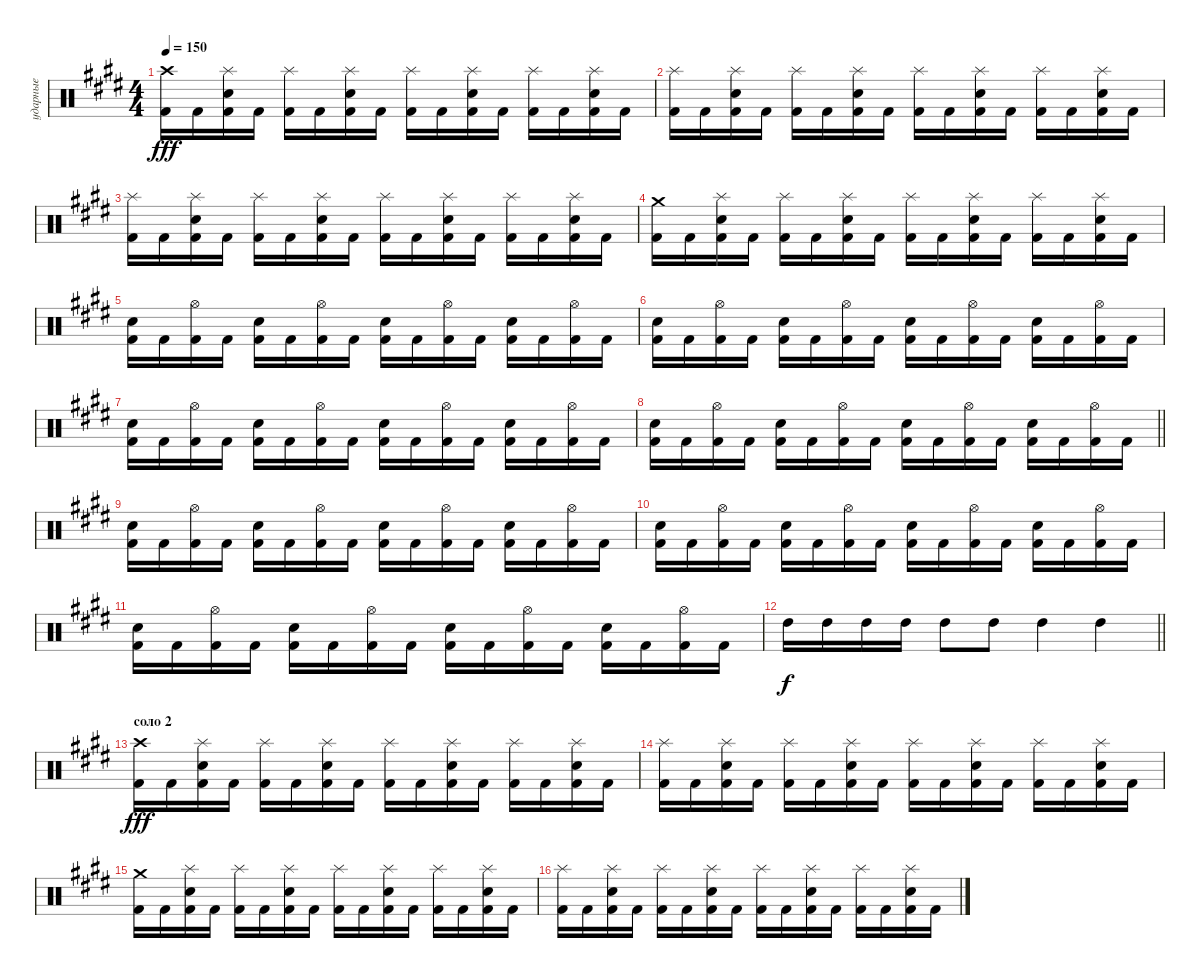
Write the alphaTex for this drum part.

\track ("ударные" "ударные") {instrument percussion}
\staff {score}
\articulation defaults
\ts (4 4)
\tempo 150
\clef neutral
\ks c#minor
("Crash high (hit)" "Kick (hit) 2").16{dy fff} "Kick (hit) 2".16 ("Splash (hit)" "Electric Snare (hit)" "Kick (hit) 2").16 "Kick (hit) 2".16 ("Splash (hit)" "Kick (hit) 2").16 "Kick (hit) 2".16 ("Splash (hit)" "Electric Snare (hit)" "Kick (hit) 2").16 "Kick (hit) 2".16 ("Splash (hit)" "Kick (hit) 2").16 "Kick (hit) 2".16 ("Splash (hit)" "Electric Snare (hit)" "Kick (hit) 2").16 "Kick (hit) 2".16 ("Splash (hit)" "Kick (hit) 2").16 "Kick (hit) 2".16 ("Splash (hit)" "Electric Snare (hit)" "Kick (hit) 2").16 "Kick (hit) 2".16 |
("Splash (hit)" "Kick (hit) 2").16 "Kick (hit) 2".16 ("Splash (hit)" "Electric Snare (hit)" "Kick (hit) 2").16 "Kick (hit) 2".16 ("Splash (hit)" "Kick (hit) 2").16 "Kick (hit) 2".16 ("Splash (hit)" "Electric Snare (hit)" "Kick (hit) 2").16 "Kick (hit) 2".16 ("Splash (hit)" "Kick (hit) 2").16 "Kick (hit) 2".16 ("Splash (hit)" "Electric Snare (hit)" "Kick (hit) 2").16 "Kick (hit) 2".16 ("Splash (hit)" "Kick (hit) 2").16 "Kick (hit) 2".16 ("Splash (hit)" "Electric Snare (hit)" "Kick (hit) 2").16 "Kick (hit) 2".16 |
("Splash (hit)" "Kick (hit) 2").16 "Kick (hit) 2".16 ("Splash (hit)" "Electric Snare (hit)" "Kick (hit) 2").16 "Kick (hit) 2".16 ("Splash (hit)" "Kick (hit) 2").16 "Kick (hit) 2".16 ("Splash (hit)" "Electric Snare (hit)" "Kick (hit) 2").16 "Kick (hit) 2".16 ("Splash (hit)" "Kick (hit) 2").16 "Kick (hit) 2".16 ("Splash (hit)" "Electric Snare (hit)" "Kick (hit) 2").16 "Kick (hit) 2".16 ("Splash (hit)" "Kick (hit) 2").16 "Kick (hit) 2".16 ("Splash (hit)" "Electric Snare (hit)" "Kick (hit) 2").16 "Kick (hit) 2".16 |
("Crash medium (hit)" "Kick (hit) 2").16 "Kick (hit) 2".16 ("Splash (hit)" "Electric Snare (hit)" "Kick (hit) 2").16 "Kick (hit) 2".16 ("Splash (hit)" "Kick (hit) 2").16 "Kick (hit) 2".16 ("Splash (hit)" "Electric Snare (hit)" "Kick (hit) 2").16 "Kick (hit) 2".16 ("Splash (hit)" "Kick (hit) 2").16 "Kick (hit) 2".16 ("Splash (hit)" "Electric Snare (hit)" "Kick (hit) 2").16 "Kick (hit) 2".16 ("Splash (hit)" "Kick (hit) 2").16 "Kick (hit) 2".16 ("Splash (hit)" "Electric Snare (hit)" "Kick (hit) 2").16 "Kick (hit) 2".16 |
("Electric Snare (hit)" "Kick (hit) 2").16 "Kick (hit) 2".16 ("Hi-Hat (open)" "Kick (hit) 2").16 "Kick (hit) 2".16 ("Electric Snare (hit)" "Kick (hit) 2").16 "Kick (hit) 2".16 ("Hi-Hat (open)" "Kick (hit) 2").16 "Kick (hit) 2".16 ("Electric Snare (hit)" "Kick (hit) 2").16 "Kick (hit) 2".16 ("Hi-Hat (open)" "Kick (hit) 2").16 "Kick (hit) 2".16 ("Electric Snare (hit)" "Kick (hit) 2").16 "Kick (hit) 2".16 ("Hi-Hat (open)" "Kick (hit) 2").16 "Kick (hit) 2".16 |
("Electric Snare (hit)" "Kick (hit) 2").16 "Kick (hit) 2".16 ("Hi-Hat (open)" "Kick (hit) 2").16 "Kick (hit) 2".16 ("Electric Snare (hit)" "Kick (hit) 2").16 "Kick (hit) 2".16 ("Hi-Hat (open)" "Kick (hit) 2").16 "Kick (hit) 2".16 ("Electric Snare (hit)" "Kick (hit) 2").16 "Kick (hit) 2".16 ("Hi-Hat (open)" "Kick (hit) 2").16 "Kick (hit) 2".16 ("Electric Snare (hit)" "Kick (hit) 2").16 "Kick (hit) 2".16 ("Hi-Hat (open)" "Kick (hit) 2").16 "Kick (hit) 2".16 |
("Electric Snare (hit)" "Kick (hit) 2").16 "Kick (hit) 2".16 ("Hi-Hat (open)" "Kick (hit) 2").16 "Kick (hit) 2".16 ("Electric Snare (hit)" "Kick (hit) 2").16 "Kick (hit) 2".16 ("Hi-Hat (open)" "Kick (hit) 2").16 "Kick (hit) 2".16 ("Electric Snare (hit)" "Kick (hit) 2").16 "Kick (hit) 2".16 ("Hi-Hat (open)" "Kick (hit) 2").16 "Kick (hit) 2".16 ("Electric Snare (hit)" "Kick (hit) 2").16 "Kick (hit) 2".16 ("Hi-Hat (open)" "Kick (hit) 2").16 "Kick (hit) 2".16 |
\barLineRight lightlight
("Electric Snare (hit)" "Kick (hit) 2").16 "Kick (hit) 2".16 ("Hi-Hat (open)" "Kick (hit) 2").16 "Kick (hit) 2".16 ("Electric Snare (hit)" "Kick (hit) 2").16 "Kick (hit) 2".16 ("Hi-Hat (open)" "Kick (hit) 2").16 "Kick (hit) 2".16 ("Electric Snare (hit)" "Kick (hit) 2").16 "Kick (hit) 2".16 ("Hi-Hat (open)" "Kick (hit) 2").16 "Kick (hit) 2".16 ("Electric Snare (hit)" "Kick (hit) 2").16 "Kick (hit) 2".16 ("Hi-Hat (open)" "Kick (hit) 2").16 "Kick (hit) 2".16 |
("Electric Snare (hit)" "Kick (hit) 2").16 "Kick (hit) 2".16 ("Hi-Hat (open)" "Kick (hit) 2").16 "Kick (hit) 2".16 ("Electric Snare (hit)" "Kick (hit) 2").16 "Kick (hit) 2".16 ("Hi-Hat (open)" "Kick (hit) 2").16 "Kick (hit) 2".16 ("Electric Snare (hit)" "Kick (hit) 2").16 "Kick (hit) 2".16 ("Hi-Hat (open)" "Kick (hit) 2").16 "Kick (hit) 2".16 ("Electric Snare (hit)" "Kick (hit) 2").16 "Kick (hit) 2".16 ("Hi-Hat (open)" "Kick (hit) 2").16 "Kick (hit) 2".16 |
("Electric Snare (hit)" "Kick (hit) 2").16 "Kick (hit) 2".16 ("Hi-Hat (open)" "Kick (hit) 2").16 "Kick (hit) 2".16 ("Electric Snare (hit)" "Kick (hit) 2").16 "Kick (hit) 2".16 ("Hi-Hat (open)" "Kick (hit) 2").16 "Kick (hit) 2".16 ("Electric Snare (hit)" "Kick (hit) 2").16 "Kick (hit) 2".16 ("Hi-Hat (open)" "Kick (hit) 2").16 "Kick (hit) 2".16 ("Electric Snare (hit)" "Kick (hit) 2").16 "Kick (hit) 2".16 ("Hi-Hat (open)" "Kick (hit) 2").16 "Kick (hit) 2".16 |
("Electric Snare (hit)" "Kick (hit) 2").16 "Kick (hit) 2".16 ("Hi-Hat (open)" "Kick (hit) 2").16 "Kick (hit) 2".16 ("Electric Snare (hit)" "Kick (hit) 2").16 "Kick (hit) 2".16 ("Hi-Hat (open)" "Kick (hit) 2").16 "Kick (hit) 2".16 ("Electric Snare (hit)" "Kick (hit) 2").16 "Kick (hit) 2".16 ("Hi-Hat (open)" "Kick (hit) 2").16 "Kick (hit) 2".16 ("Electric Snare (hit)" "Kick (hit) 2").16 "Kick (hit) 2".16 ("Hi-Hat (open)" "Kick (hit) 2").16 "Kick (hit) 2".16 |
\barLineRight lightlight "High Tom (hit)".16{dy f} "High Tom (hit)".16 "High Tom (hit)".16 "High Tom (hit)".16 "High Tom (hit)".8 "High Tom (hit)".8 "High Tom (hit)".4 "High Tom (hit)".4
|
\section ("" "соло 2")
("Crash high (hit)" "Kick (hit) 2").16{dy fff} "Kick (hit) 2".16 ("Splash (hit)" "Electric Snare (hit)" "Kick (hit) 2").16 "Kick (hit) 2".16 ("Splash (hit)" "Kick (hit) 2").16 "Kick (hit) 2".16 ("Splash (hit)" "Electric Snare (hit)" "Kick (hit) 2").16 "Kick (hit) 2".16 ("Splash (hit)" "Kick (hit) 2").16 "Kick (hit) 2".16 ("Splash (hit)" "Electric Snare (hit)" "Kick (hit) 2").16 "Kick (hit) 2".16 ("Splash (hit)" "Kick (hit) 2").16 "Kick (hit) 2".16 ("Splash (hit)" "Electric Snare (hit)" "Kick (hit) 2").16 "Kick (hit) 2".16 |
("Splash (hit)" "Kick (hit) 2").16 "Kick (hit) 2".16 ("Splash (hit)" "Electric Snare (hit)" "Kick (hit) 2").16 "Kick (hit) 2".16 ("Splash (hit)" "Kick (hit) 2").16 "Kick (hit) 2".16 ("Splash (hit)" "Electric Snare (hit)" "Kick (hit) 2").16 "Kick (hit) 2".16 ("Splash (hit)" "Kick (hit) 2").16 "Kick (hit) 2".16 ("Splash (hit)" "Electric Snare (hit)" "Kick (hit) 2").16 "Kick (hit) 2".16 ("Splash (hit)" "Kick (hit) 2").16 "Kick (hit) 2".16 ("Splash (hit)" "Electric Snare (hit)" "Kick (hit) 2").16 "Kick (hit) 2".16 |
("Crash medium (hit)" "Kick (hit) 2").16 "Kick (hit) 2".16 ("Splash (hit)" "Electric Snare (hit)" "Kick (hit) 2").16 "Kick (hit) 2".16 ("Splash (hit)" "Kick (hit) 2").16 "Kick (hit) 2".16 ("Splash (hit)" "Electric Snare (hit)" "Kick (hit) 2").16 "Kick (hit) 2".16 ("Splash (hit)" "Kick (hit) 2").16 "Kick (hit) 2".16 ("Splash (hit)" "Electric Snare (hit)" "Kick (hit) 2").16 "Kick (hit) 2".16 ("Splash (hit)" "Kick (hit) 2").16 "Kick (hit) 2".16 ("Splash (hit)" "Electric Snare (hit)" "Kick (hit) 2").16 "Kick (hit) 2".16 |
("Splash (hit)" "Kick (hit) 2").16 "Kick (hit) 2".16 ("Splash (hit)" "Electric Snare (hit)" "Kick (hit) 2").16 "Kick (hit) 2".16 ("Splash (hit)" "Kick (hit) 2").16 "Kick (hit) 2".16 ("Splash (hit)" "Electric Snare (hit)" "Kick (hit) 2").16 "Kick (hit) 2".16 ("Splash (hit)" "Kick (hit) 2").16 "Kick (hit) 2".16 ("Splash (hit)" "Electric Snare (hit)" "Kick (hit) 2").16 "Kick (hit) 2".16 ("Splash (hit)" "Kick (hit) 2").16 "Kick (hit) 2".16 ("Splash (hit)" "Electric Snare (hit)" "Kick (hit) 2").16 "Kick (hit) 2".16
